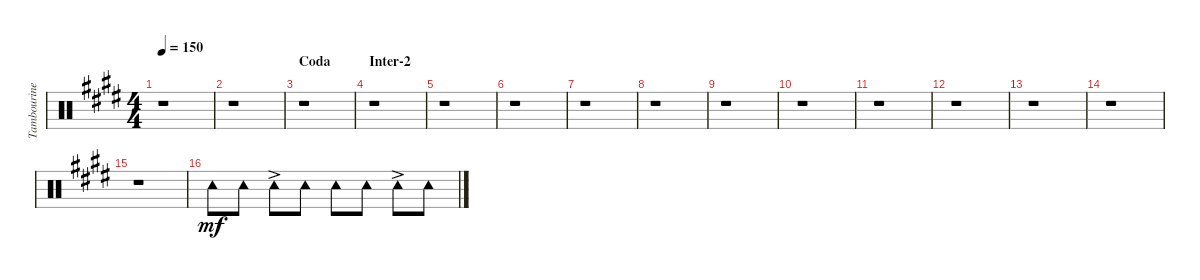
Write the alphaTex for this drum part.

\track ("Tambourine" "Tambourine") {instrument percussion}
\staff {score}
\articulation defaults
\ts (4 4)
\tempo 150
\clef neutral
\ks e
r.1{dy mf} |
r.1 |
\section ("" "Coda")
r.1 |
\section ("" "Inter-2")
r.1 |
r.1 |
r.1 |
r.1 |
r.1 |
r.1 |
r.1 |
r.1 |
r.1 |
r.1 |
r.1 |
r.1 |
"Tambourine (hit)".8 "Tambourine (hit)".8 "Tambourine (hit)"{ac}.8 "Tambourine (hit)".8 "Tambourine (hit)".8 "Tambourine (hit)".8 "Tambourine (hit)"{ac}.8 "Tambourine (hit)".8
